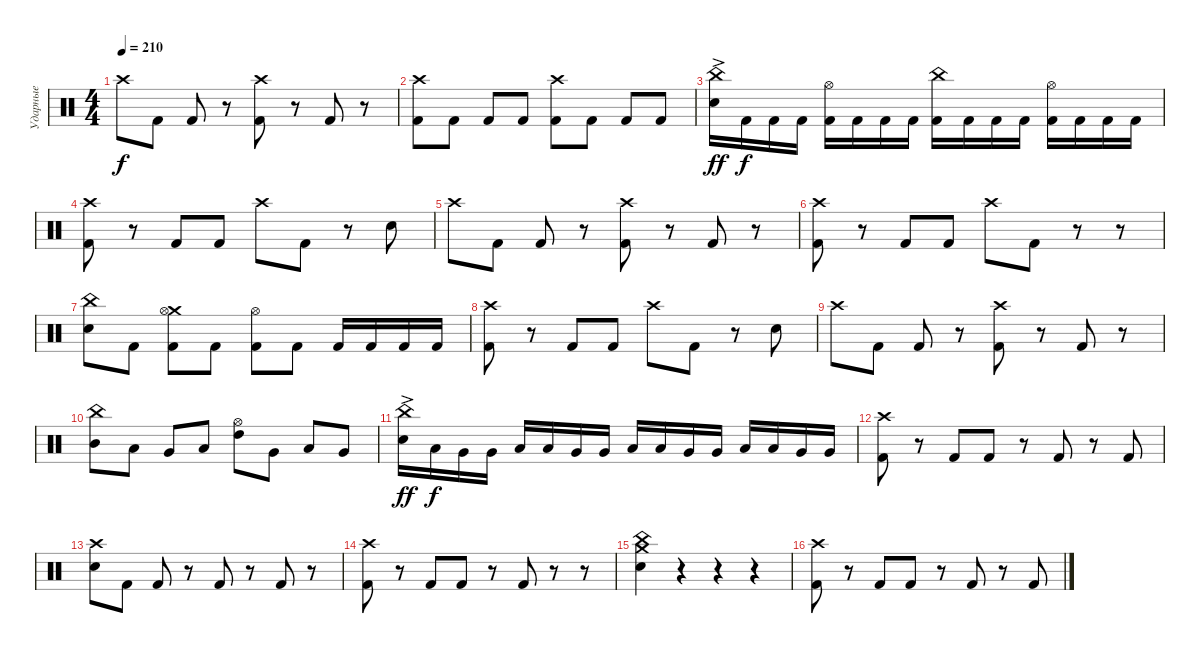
\track ("Ударные" "Ударные") {instrument percussion}
\staff {score}
\articulation defaults
\ts (4 4)
\tempo 210
\clef neutral
\ks c "Crash high (hit)".8{dy f} "Kick (hit) 2".8 "Kick (hit) 2".8
r.8 ("Kick (hit) 2" "Crash high (hit)").8 r.8 "Kick (hit) 2".8 r.8 |
("Kick (hit) 2" "Crash high (hit)").8 "Kick (hit) 2".8 "Kick (hit) 2".8 "Kick (hit) 2".8 ("Kick (hit) 2" "Crash high (hit)").8 "Kick (hit) 2".8 "Kick (hit) 2".8 "Kick (hit) 2".8 |
("Electric Snare (hit)"{ac} "China (hit)").16{dy ff} "Kick (hit) 2".16{dy f} "Kick (hit) 2".16 "Kick (hit) 2".16 ("Kick (hit) 2" "Hi-Hat (open)").16 "Kick (hit) 2".16 "Kick (hit) 2".16 "Kick (hit) 2".16 ("Kick (hit) 2" "China (hit)").16 "Kick (hit) 2".16 "Kick (hit) 2".16 "Kick (hit) 2".16 ("Kick (hit) 2" "Hi-Hat (open)").16 "Kick (hit) 2".16 "Kick (hit) 2".16 "Kick (hit) 2".16 |
("Kick (hit) 2" "Crash high (hit)").8 r.8 "Kick (hit) 2".8 "Kick (hit) 2".8 "Crash high (hit)".8 "Kick (hit) 2".8 r.8 "Electric Snare (hit)".8 |
"Crash high (hit)".8 "Kick (hit) 2".8 "Kick (hit) 2".8 r.8 ("Kick (hit) 2" "Crash high (hit)").8 r.8 "Kick (hit) 2".8 r.8 |
("Kick (hit) 2" "Crash high (hit)").8 r.8 "Kick (hit) 2".8 "Kick (hit) 2".8 "Crash high (hit)".8 "Kick (hit) 2".8 r.8 r.8 |
("Electric Snare (hit)" "China (hit)").8 "Kick (hit) 2".8 ("Kick (hit) 2" "Crash medium (hit)" "Hi-Hat (open)").8 "Kick (hit) 2".8 ("Kick (hit) 2" "Hi-Hat (open)").8 "Kick (hit) 2".8 "Kick (hit) 2".16 "Kick (hit) 2".16 "Kick (hit) 2".16 "Kick (hit) 2".16 |
("Kick (hit) 2" "Crash high (hit)").8 r.8 "Kick (hit) 2".8 "Kick (hit) 2".8 "Crash high (hit)".8 "Kick (hit) 2".8 r.8 "Electric Snare (hit)".8 |
"Crash high (hit)".8 "Kick (hit) 2".8 "Kick (hit) 2".8 r.8 ("Kick (hit) 2" "Crash high (hit)").8 r.8 "Kick (hit) 2".8 r.8 |
("Mid Tom (hit)" "China (hit)").8 "Low Tom (hit)".8 "Very Low Tom (hit)".8 "Low Tom (hit)".8 ("High Tom (hit)" "Hi-Hat (open)").8 "Very Low Tom (hit)".8 "Low Floor Tom (hit)".8 "Very Low Tom (hit)".8 |
("Electric Snare (hit)"{ac} "China (hit)").16{dy ff} "Low Tom (hit)".16{dy f} "Very Low Tom (hit)".16 "Very Low Tom (hit)".16 "Low Tom (hit)".16 "Low Tom (hit)".16 "Very Low Tom (hit)".16 "Very Low Tom (hit)".16 "Low Tom (hit)".16 "Low Tom (hit)".16 "Very Low Tom (hit)".16 "Very Low Tom (hit)".16 "Low Tom (hit)".16 "Low Tom (hit)".16 "Very Low Tom (hit)".16 "Very Low Tom (hit)".16 |
("Kick (hit) 2" "Crash high (hit)").8 r.8 "Kick (hit) 2".8 "Kick (hit) 2".8 r.8 "Kick (hit) 2".8 r.8 "Kick (hit) 2".8 |
("Electric Snare (hit)" "Crash high (hit)").8 "Kick (hit) 2".8 "Kick (hit) 2".8 r.8 "Kick (hit) 2".8 r.8 "Kick (hit) 2".8 r.8 |
("Kick (hit) 2" "Crash high (hit)").8 r.8 "Kick (hit) 2".8 "Kick (hit) 2".8 r.8 "Kick (hit) 2".8 r.8 r.8 |
("Electric Snare (hit)" "Crash medium (hit)" "China (hit)").4 r.4 r.4 r.4 |
("Kick (hit) 2" "Crash high (hit)").8 r.8 "Kick (hit) 2".8 "Kick (hit) 2".8 r.8 "Kick (hit) 2".8 r.8 "Kick (hit) 2".8
